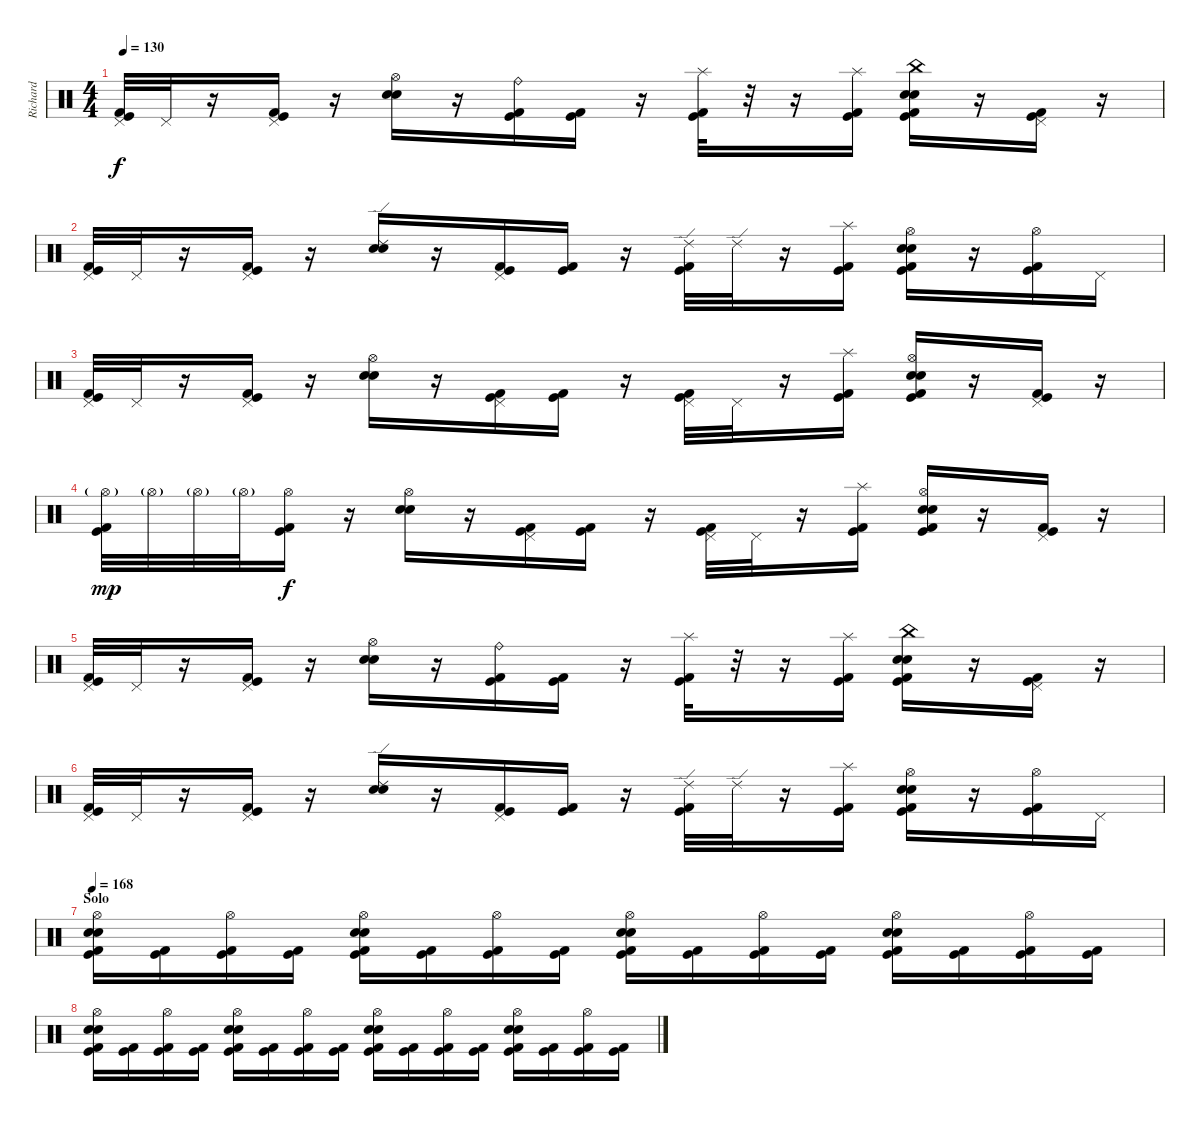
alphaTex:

\track ("Richard" "Richard") {instrument percussion}
\staff {score}
\articulation defaults
\ts (4 4)
\tempo 130
\clef neutral
\ks c
("Pedal Hi-Hat (hit)" "Kick (hit)" "Kick (hit) 2").32{dy f} "Pedal Hi-Hat (hit)".32 r.16 ("Pedal Hi-Hat (hit)" "Kick (hit)" "Kick (hit) 2").16 r.16 ("Hi-Hat (open)" "Snare (hit) 2" "Electric Snare (hit)").16 r.16 ("Ride (bell)" "Kick (hit)" "Kick (hit) 2").16 ("Kick (hit)" "Kick (hit) 2").16 r.16 ("Splash (hit)" "Kick (hit)" "Kick (hit) 2").32 r.32 r.16 ("Splash (hit)" "Kick (hit)" "Kick (hit) 2").16 ("China (hit)" "Snare (hit) 2" "Electric Snare (hit)" "Kick (hit)" "Kick (hit) 2").16 r.16 ("Pedal Hi-Hat (hit)" "Kick (hit)" "Kick (hit) 2").16 r.16 |
("Pedal Hi-Hat (hit)" "Kick (hit)" "Kick (hit) 2").32 "Pedal Hi-Hat (hit)".32 r.16 ("Pedal Hi-Hat (hit)" "Kick (hit)" "Kick (hit) 2").16 r.16 ("Ride (edge) 2" "Snare (hit) 2" "Electric Snare (hit)").16 r.16 ("Pedal Hi-Hat (hit)" "Kick (hit)" "Kick (hit) 2").16 ("Kick (hit)" "Kick (hit) 2").16 r.16 ("Ride (edge) 2" "Kick (hit)" "Kick (hit) 2").32 "Ride (edge) 2".32 r.16 ("Splash (hit)" "Kick (hit)" "Kick (hit) 2").16 ("Hi-Hat (open)" "Snare (hit) 2" "Electric Snare (hit)" "Kick (hit)" "Kick (hit) 2").16 r.16 ("Hi-Hat (open)" "Kick (hit)" "Kick (hit) 2").16 "Pedal Hi-Hat (hit)".16 |
("Pedal Hi-Hat (hit)" "Kick (hit)" "Kick (hit) 2").32 "Pedal Hi-Hat (hit)".32 r.16 ("Pedal Hi-Hat (hit)" "Kick (hit)" "Kick (hit) 2").16 r.16 ("Hi-Hat (open)" "Snare (hit) 2" "Electric Snare (hit)").16 r.16 ("Pedal Hi-Hat (hit)" "Kick (hit)" "Kick (hit) 2").16 ("Kick (hit)" "Kick (hit) 2").16 r.16 ("Pedal Hi-Hat (hit)" "Kick (hit)" "Kick (hit) 2").32 "Pedal Hi-Hat (hit)".32 r.16 ("Splash (hit)" "Kick (hit)" "Kick (hit) 2").16 ("Hi-Hat (open)" "Snare (hit) 2" "Electric Snare (hit)" "Kick (hit)" "Kick (hit) 2").16 r.16 ("Pedal Hi-Hat (hit)" "Kick (hit)" "Kick (hit) 2").16 r.16 |
("Hi-Hat (open)"{g} "Kick (hit)" "Kick (hit) 2").32{dy mp} "Hi-Hat (open)"{g}.32 "Hi-Hat (open)"{g}.32 "Hi-Hat (open)"{g}.32 ("Hi-Hat (open)" "Kick (hit)" "Kick (hit) 2").16{dy f} r.16 ("Hi-Hat (open)" "Snare (hit) 2" "Electric Snare (hit)").16 r.16 ("Pedal Hi-Hat (hit)" "Kick (hit)" "Kick (hit) 2").16 ("Kick (hit)" "Kick (hit) 2").16 r.16 ("Pedal Hi-Hat (hit)" "Kick (hit)" "Kick (hit) 2").32 "Pedal Hi-Hat (hit)".32 r.16 ("Splash (hit)" "Kick (hit)" "Kick (hit) 2").16 ("Hi-Hat (open)" "Snare (hit) 2" "Electric Snare (hit)" "Kick (hit)" "Kick (hit) 2").16 r.16 ("Pedal Hi-Hat (hit)" "Kick (hit)" "Kick (hit) 2").16 r.16 |
("Pedal Hi-Hat (hit)" "Kick (hit)" "Kick (hit) 2").32 "Pedal Hi-Hat (hit)".32 r.16 ("Pedal Hi-Hat (hit)" "Kick (hit)" "Kick (hit) 2").16 r.16 ("Hi-Hat (open)" "Snare (hit) 2" "Electric Snare (hit)").16 r.16 ("Ride (bell)" "Kick (hit)" "Kick (hit) 2").16 ("Kick (hit)" "Kick (hit) 2").16 r.16 ("Splash (hit)" "Kick (hit)" "Kick (hit) 2").32 r.32 r.16 ("Splash (hit)" "Kick (hit)" "Kick (hit) 2").16 ("China (hit)" "Snare (hit) 2" "Electric Snare (hit)" "Kick (hit)" "Kick (hit) 2").16 r.16 ("Pedal Hi-Hat (hit)" "Kick (hit)" "Kick (hit) 2").16 r.16 |
("Pedal Hi-Hat (hit)" "Kick (hit)" "Kick (hit) 2").32 "Pedal Hi-Hat (hit)".32 r.16 ("Pedal Hi-Hat (hit)" "Kick (hit)" "Kick (hit) 2").16 r.16 ("Ride (edge) 2" "Snare (hit) 2" "Electric Snare (hit)").16 r.16 ("Pedal Hi-Hat (hit)" "Kick (hit)" "Kick (hit) 2").16 ("Kick (hit)" "Kick (hit) 2").16 r.16 ("Ride (edge) 2" "Kick (hit)" "Kick (hit) 2").32 "Ride (edge) 2".32 r.16 ("Splash (hit)" "Kick (hit)" "Kick (hit) 2").16 ("Hi-Hat (open)" "Snare (hit) 2" "Electric Snare (hit)" "Kick (hit)" "Kick (hit) 2").16 r.16 ("Hi-Hat (open)" "Kick (hit)" "Kick (hit) 2").16 "Pedal Hi-Hat (hit)".16 |
\section ("" "Solo")
\tempo 168
("Hi-Hat (open)" "Snare (hit) 2" "Electric Snare (hit)" "Kick (hit)" "Kick (hit) 2").16 ("Kick (hit)" "Kick (hit) 2").16 ("Hi-Hat (open)" "Kick (hit)" "Kick (hit) 2").16 ("Kick (hit)" "Kick (hit) 2").16 ("Hi-Hat (open)" "Snare (hit) 2" "Electric Snare (hit)" "Kick (hit)" "Kick (hit) 2").16 ("Kick (hit)" "Kick (hit) 2").16 ("Hi-Hat (open)" "Kick (hit)" "Kick (hit) 2").16 ("Kick (hit)" "Kick (hit) 2").16 ("Hi-Hat (open)" "Snare (hit) 2" "Electric Snare (hit)" "Kick (hit)" "Kick (hit) 2").16 ("Kick (hit)" "Kick (hit) 2").16 ("Hi-Hat (open)" "Kick (hit)" "Kick (hit) 2").16 ("Kick (hit)" "Kick (hit) 2").16 ("Hi-Hat (open)" "Snare (hit) 2" "Electric Snare (hit)" "Kick (hit)" "Kick (hit) 2").16 ("Kick (hit)" "Kick (hit) 2").16 ("Hi-Hat (open)" "Kick (hit)" "Kick (hit) 2").16 ("Kick (hit)" "Kick (hit) 2").16 |
("Hi-Hat (open)" "Snare (hit) 2" "Electric Snare (hit)" "Kick (hit)" "Kick (hit) 2").16 ("Kick (hit)" "Kick (hit) 2").16 ("Hi-Hat (open)" "Kick (hit)" "Kick (hit) 2").16 ("Kick (hit)" "Kick (hit) 2").16 ("Hi-Hat (open)" "Snare (hit) 2" "Electric Snare (hit)" "Kick (hit)" "Kick (hit) 2").16 ("Kick (hit)" "Kick (hit) 2").16 ("Hi-Hat (open)" "Kick (hit)" "Kick (hit) 2").16 ("Kick (hit)" "Kick (hit) 2").16 ("Hi-Hat (open)" "Snare (hit) 2" "Electric Snare (hit)" "Kick (hit)" "Kick (hit) 2").16 ("Kick (hit)" "Kick (hit) 2").16 ("Hi-Hat (open)" "Kick (hit)" "Kick (hit) 2").16 ("Kick (hit)" "Kick (hit) 2").16 ("Hi-Hat (open)" "Snare (hit) 2" "Electric Snare (hit)" "Kick (hit)" "Kick (hit) 2").16 ("Kick (hit)" "Kick (hit) 2").16 ("Hi-Hat (open)" "Kick (hit)" "Kick (hit) 2").16 ("Kick (hit)" "Kick (hit) 2").16
